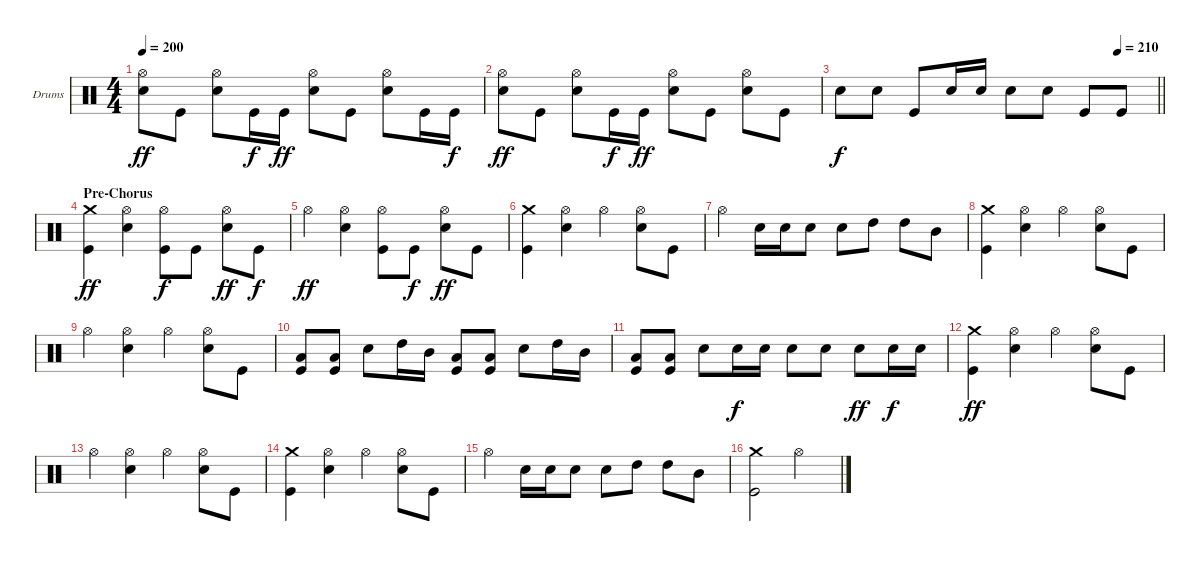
\bracketExtendMode groupsimilarinstruments
\firstSystemTrackNameOrientation horizontal
\otherSystemsTrackNameOrientation horizontal
\track ("Drumkit" "Drums") {instrument percussion}
\staff {score}
\articulation defaults
\ts (4 4)
\tempo 200
\clef neutral
\ks c
("Hi-Hat (open)" "Snare (hit) 2").8{dy ff} "Kick (hit)".8 ("Hi-Hat (open)" "Snare (hit) 2").8 "Kick (hit)".16{dy f} "Kick (hit)".16{dy ff} ("Hi-Hat (open)" "Snare (hit) 2").8 "Kick (hit)".8 ("Hi-Hat (open)" "Snare (hit) 2").8 "Kick (hit)".16 "Kick (hit)".16{dy f} |
("Hi-Hat (open)" "Snare (hit) 2").8{dy ff} "Kick (hit)".8 ("Hi-Hat (open)" "Snare (hit) 2").8 "Kick (hit)".16{dy f} "Kick (hit)".16{dy ff} ("Hi-Hat (open)" "Snare (hit) 2").8 "Kick (hit)".8 ("Hi-Hat (open)" "Snare (hit) 2").8 "Kick (hit)".8 |
\tempo (210 0.875)
\barLineRight lightlight "Snare (hit) 2".8{dy f} "Snare (hit) 2".8 "Kick (hit)".8 "Snare (hit) 2".16 "Snare (hit) 2".16 "Snare (hit) 2".8 "Snare (hit) 2".8 "Kick (hit)".8 "Kick (hit)".8
|
\section ("" "Pre-Chorus")
("Crash medium (hit)" "Kick (hit)").4{dy ff} ("Hi-Hat (open)" "Snare (hit) 2").4 ("Hi-Hat (open)" "Kick (hit)").8{dy f} "Kick (hit)".8 ("Hi-Hat (open)" "Snare (hit) 2").8{dy ff} "Kick (hit)".8{dy f} |
"Hi-Hat (open)".4{dy ff} ("Hi-Hat (open)" "Snare (hit) 2").4 ("Hi-Hat (open)" "Kick (hit)").8 "Kick (hit)".8{dy f} ("Hi-Hat (open)" "Snare (hit) 2").8{dy ff} "Kick (hit)".8 |
("Crash medium (hit)" "Kick (hit)").4 ("Hi-Hat (open)" "Snare (hit) 2").4 "Hi-Hat (open)".4 ("Hi-Hat (open)" "Snare (hit) 2").8 "Kick (hit)".8 |
"Hi-Hat (open)".4 "Snare (hit) 2".16 "Snare (hit) 2".16 "Snare (hit) 2".8 "Snare (hit) 2".8 "High Tom (hit)".8 "High Tom (hit)".8 "Mid Tom (hit)".8 |
("Crash medium (hit)" "Kick (hit)").4 ("Hi-Hat (open)" "Snare (hit) 2").4 "Hi-Hat (open)".4 ("Hi-Hat (open)" "Snare (hit) 2").8 "Kick (hit)".8 |
"Hi-Hat (open)".4 ("Hi-Hat (open)" "Snare (hit) 2").4 "Hi-Hat (open)".4 ("Hi-Hat (open)" "Snare (hit) 2").8 "Kick (hit)".8 |
("Low Tom (hit)" "Kick (hit)").8 ("Low Tom (hit)" "Kick (hit)").8 "Snare (hit) 2".8 "High Tom (hit)".16 "Mid Tom (hit)".16 ("Low Tom (hit)" "Kick (hit)").8 ("Low Tom (hit)" "Kick (hit)").8 "Snare (hit) 2".8 "High Tom (hit)".16 "Mid Tom (hit)".16 |
("Low Tom (hit)" "Kick (hit)").8 ("Low Tom (hit)" "Kick (hit)").8 "Snare (hit) 2".8 "Snare (hit) 2".16{dy f} "Snare (hit) 2".16 "Snare (hit) 2".8 "Snare (hit) 2".8 "Snare (hit) 2".8{dy ff} "Snare (hit) 2".16{dy f} "Snare (hit) 2".16 |
("Crash medium (hit)" "Kick (hit)").4{dy ff} ("Hi-Hat (open)" "Snare (hit) 2").4 "Hi-Hat (open)".4 ("Hi-Hat (open)" "Snare (hit) 2").8 "Kick (hit)".8 |
"Hi-Hat (open)".4 ("Hi-Hat (open)" "Snare (hit) 2").4 "Hi-Hat (open)".4 ("Hi-Hat (open)" "Snare (hit) 2").8 "Kick (hit)".8 |
("Crash medium (hit)" "Kick (hit)").4 ("Hi-Hat (open)" "Snare (hit) 2").4 "Hi-Hat (open)".4 ("Hi-Hat (open)" "Snare (hit) 2").8 "Kick (hit)".8 |
"Hi-Hat (open)".4 "Snare (hit) 2".16 "Snare (hit) 2".16 "Snare (hit) 2".8 "Snare (hit) 2".8 "High Tom (hit)".8 "High Tom (hit)".8 "Mid Tom (hit)".8 |
("Crash medium (hit)" "Kick (hit)").2 "Hi-Hat (open)".2
